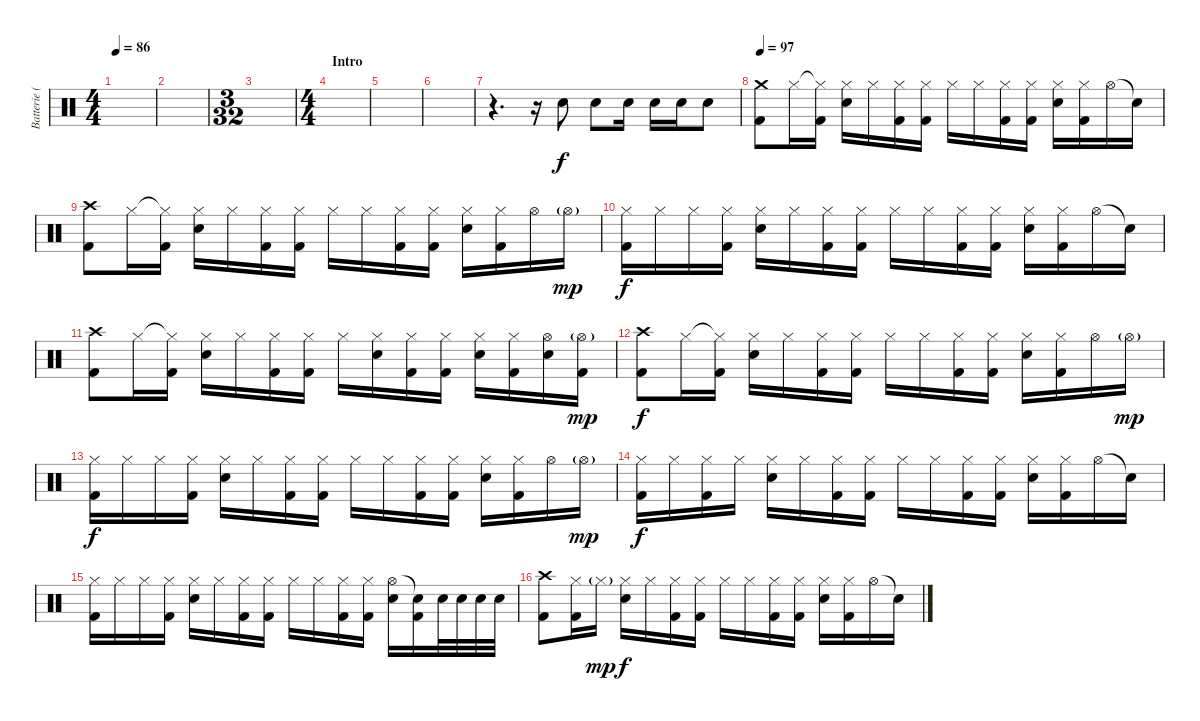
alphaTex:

\track ("Batterie (Alfredo Hernandez)" "Batterie (") {instrument percussion}
\staff {score}
\articulation defaults
\ts (4 4)
\tempo 86
\clef neutral
\ks c
|
|
\ts (3 32)
|
\ts (4 4)
\section ("" "Intro")
|
|
|
r.4{d} r.16 "Electric Snare (hit)".8 "Electric Snare (hit)".8 "Electric Snare (hit)".16 "Electric Snare (hit)".16 "Electric Snare (hit)".16 "Electric Snare (hit)".8 |
\tempo 97
("Crash medium (hit)" "Kick (hit) 2").8 "Hi-Hat (closed)".16 ("Hi-Hat (closed)"{t} "Kick (hit) 2").16 ("Hi-Hat (closed)" "Electric Snare (hit)").16 "Hi-Hat (closed)".16 ("Hi-Hat (closed)" "Kick (hit) 2").16 ("Hi-Hat (closed)" "Kick (hit) 2").16 "Hi-Hat (closed)".16 "Hi-Hat (closed)".16 ("Hi-Hat (closed)" "Kick (hit) 2").16 ("Hi-Hat (closed)" "Kick (hit) 2").16 ("Hi-Hat (closed)" "Electric Snare (hit)").16 ("Hi-Hat (closed)" "Kick (hit) 2").16 "Hi-Hat (open)".16 "Snare (hit)"{t}.16 |
("Crash high (hit)" "Kick (hit) 2").8 "Hi-Hat (closed)".16 ("Hi-Hat (closed)"{t} "Kick (hit) 2").16 ("Hi-Hat (closed)" "Electric Snare (hit)").16 "Hi-Hat (closed)".16 ("Hi-Hat (closed)" "Kick (hit) 2").16 ("Hi-Hat (closed)" "Kick (hit) 2").16 "Hi-Hat (closed)".16 "Hi-Hat (closed)".16 ("Hi-Hat (closed)" "Kick (hit) 2").16 ("Hi-Hat (closed)" "Kick (hit) 2").16 ("Hi-Hat (closed)" "Electric Snare (hit)").16 ("Hi-Hat (closed)" "Kick (hit) 2").16 "Hi-Hat (open)".16 "Hi-Hat (open)"{g}.16{dy mp} |
("Hi-Hat (closed)" "Kick (hit) 2").16{dy f} "Hi-Hat (closed)".16 "Hi-Hat (closed)".16 ("Hi-Hat (closed)" "Kick (hit) 2").16 ("Hi-Hat (closed)" "Electric Snare (hit)").16 "Hi-Hat (closed)".16 ("Hi-Hat (closed)" "Kick (hit) 2").16 ("Hi-Hat (closed)" "Kick (hit) 2").16 "Hi-Hat (closed)".16 "Hi-Hat (closed)".16 ("Hi-Hat (closed)" "Kick (hit) 2").16 ("Hi-Hat (closed)" "Kick (hit) 2").16 ("Hi-Hat (closed)" "Electric Snare (hit)").16 ("Hi-Hat (closed)" "Kick (hit) 2").16 "Hi-Hat (open)".16 "Snare (hit)"{t}.16 |
("Crash high (hit)" "Kick (hit) 2").8 "Hi-Hat (closed)".16 ("Hi-Hat (closed)"{t} "Kick (hit) 2").16 ("Hi-Hat (closed)" "Electric Snare (hit)").16 "Hi-Hat (closed)".16 ("Hi-Hat (closed)" "Kick (hit) 2").16 ("Hi-Hat (closed)" "Kick (hit) 2").16 "Hi-Hat (closed)".16 ("Hi-Hat (closed)" "Electric Snare (hit)").16 ("Hi-Hat (closed)" "Kick (hit) 2").16 ("Hi-Hat (closed)" "Kick (hit) 2").16 ("Hi-Hat (closed)" "Electric Snare (hit)").16 ("Hi-Hat (closed)" "Kick (hit) 2").16 ("Hi-Hat (open)" "Electric Snare (hit)").16 ("Hi-Hat (open)"{g} "Kick (hit) 2").16{dy mp} |
("Crash high (hit)" "Kick (hit) 2").8{dy f} "Hi-Hat (closed)".16 ("Hi-Hat (closed)"{t} "Kick (hit) 2").16 ("Hi-Hat (closed)" "Electric Snare (hit)").16 "Hi-Hat (closed)".16 ("Hi-Hat (closed)" "Kick (hit) 2").16 ("Hi-Hat (closed)" "Kick (hit) 2").16 "Hi-Hat (closed)".16 "Hi-Hat (closed)".16 ("Hi-Hat (closed)" "Kick (hit) 2").16 ("Hi-Hat (closed)" "Kick (hit) 2").16 ("Hi-Hat (closed)" "Electric Snare (hit)").16 ("Hi-Hat (closed)" "Kick (hit) 2").16 "Hi-Hat (open)".16 "Hi-Hat (open)"{g}.16{dy mp} |
("Hi-Hat (closed)" "Kick (hit) 2").16{dy f} "Hi-Hat (closed)".16 "Hi-Hat (closed)".16 ("Hi-Hat (closed)" "Kick (hit) 2").16 ("Hi-Hat (closed)" "Electric Snare (hit)").16 "Hi-Hat (closed)".16 ("Hi-Hat (closed)" "Kick (hit) 2").16 ("Hi-Hat (closed)" "Kick (hit) 2").16 "Hi-Hat (closed)".16 "Hi-Hat (closed)".16 ("Hi-Hat (closed)" "Kick (hit) 2").16 ("Hi-Hat (closed)" "Kick (hit) 2").16 ("Hi-Hat (closed)" "Electric Snare (hit)").16 ("Hi-Hat (closed)" "Kick (hit) 2").16 "Hi-Hat (open)".16 "Hi-Hat (open)"{g}.16{dy mp} |
("Hi-Hat (closed)" "Kick (hit) 2").16{dy f} "Hi-Hat (closed)".16 ("Hi-Hat (closed)" "Kick (hit) 2").16 "Hi-Hat (closed)".16 ("Hi-Hat (closed)" "Electric Snare (hit)").16 "Hi-Hat (closed)".16 ("Hi-Hat (closed)" "Kick (hit) 2").16 ("Hi-Hat (closed)" "Kick (hit) 2").16 "Hi-Hat (closed)".16 "Hi-Hat (closed)".16 ("Hi-Hat (closed)" "Kick (hit) 2").16 ("Hi-Hat (closed)" "Kick (hit) 2").16 ("Hi-Hat (closed)" "Electric Snare (hit)").16 ("Hi-Hat (closed)" "Kick (hit) 2").16 "Hi-Hat (open)".16 "Snare (hit)"{t}.16 |
("Hi-Hat (closed)" "Kick (hit) 2").16 "Hi-Hat (closed)".16 "Hi-Hat (closed)".16 ("Hi-Hat (closed)" "Kick (hit) 2").16 ("Hi-Hat (closed)" "Electric Snare (hit)").16 "Hi-Hat (closed)".16 ("Hi-Hat (closed)" "Kick (hit) 2").16 ("Hi-Hat (closed)" "Kick (hit) 2").16 "Hi-Hat (closed)".16 "Hi-Hat (closed)".16 ("Hi-Hat (closed)" "Kick (hit) 2").16 ("Hi-Hat (closed)" "Kick (hit) 2").16 ("Hi-Hat (open)" "Electric Snare (hit)").16 ("Snare (hit)"{t} "Kick (hit) 2").16 "Electric Snare (hit)".32 "Electric Snare (hit)".32 "Electric Snare (hit)".32 "Electric Snare (hit)".32 |
("Crash high (hit)" "Kick (hit) 2").8 ("Hi-Hat (closed)" "Kick (hit) 2").16 "Hi-Hat (closed)"{g}.16{dy mp} ("Hi-Hat (closed)" "Electric Snare (hit)").16{dy f} "Hi-Hat (closed)".16 ("Hi-Hat (closed)" "Kick (hit) 2").16 ("Hi-Hat (closed)" "Kick (hit) 2").16 "Hi-Hat (closed)".16 "Hi-Hat (closed)".16 ("Hi-Hat (closed)" "Kick (hit) 2").16 ("Hi-Hat (closed)" "Kick (hit) 2").16 ("Hi-Hat (closed)" "Electric Snare (hit)").16 ("Hi-Hat (closed)" "Kick (hit) 2").16 "Hi-Hat (open)".16 "Snare (hit)"{t}.16
